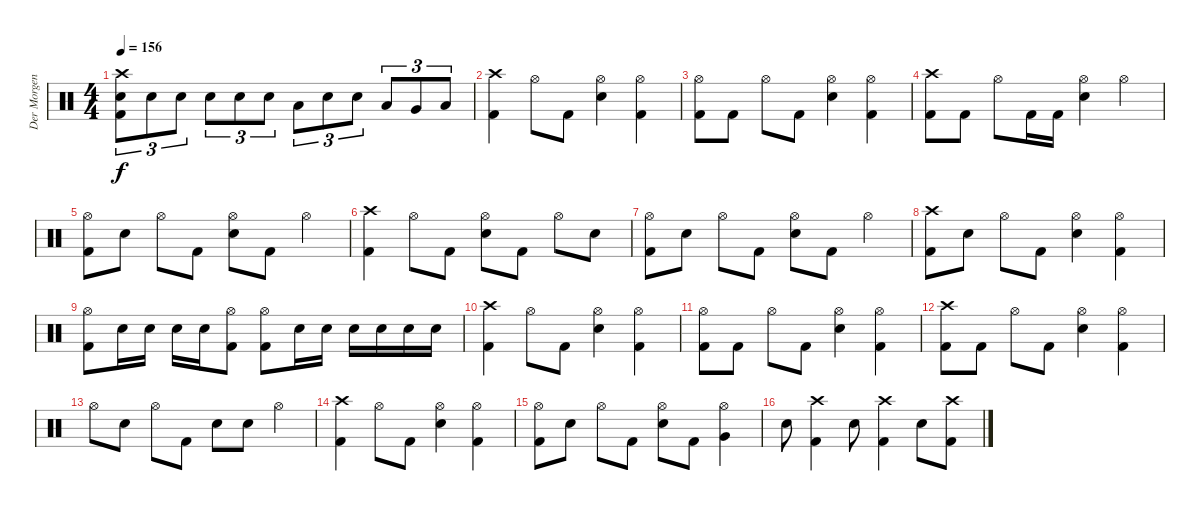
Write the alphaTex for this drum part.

\track ("Der Morgenstern" "Der Morgen") {instrument percussion}
\staff {score}
\articulation defaults
\ts (4 4)
\tempo 156
\clef neutral
\ks c
("Crash high (hit)" "Electric Snare (hit)" "Kick (hit) 2").8{tu (3 2) dy f} "Electric Snare (hit)".8{tu (3 2)} "Electric Snare (hit)".8{tu (3 2)} "Electric Snare (hit)".8{tu (3 2)} "Electric Snare (hit)".8{tu (3 2)} "Electric Snare (hit)".8{tu (3 2)} "Low Tom (hit)".8{tu (3 2)} "Electric Snare (hit)".8{tu (3 2)} "Electric Snare (hit)".8{tu (3 2)} "Low Tom (hit)".8{tu (3 2)} "Very Low Tom (hit)".8{tu (3 2)} "Low Floor Tom (hit)".8{tu (3 2)} |
("Crash high (hit)" "Kick (hit) 2").4 "Hi-Hat (open)".8 "Kick (hit) 2".8 ("Hi-Hat (open)" "Electric Snare (hit)").4 ("Hi-Hat (open)" "Kick (hit) 2").4 |
("Hi-Hat (open)" "Kick (hit) 2").8 "Kick (hit) 2".8 "Hi-Hat (open)".8 "Kick (hit) 2".8 ("Hi-Hat (open)" "Electric Snare (hit)").4 ("Hi-Hat (open)" "Kick (hit) 2").4 |
("Crash high (hit)" "Kick (hit) 2").8 "Kick (hit) 2".8 "Hi-Hat (open)".8 "Kick (hit) 2".16 "Kick (hit) 2".16 ("Hi-Hat (open)" "Electric Snare (hit)").4 "Hi-Hat (open)".4 |
("Hi-Hat (open)" "Kick (hit) 2").8 "Electric Snare (hit)".8 "Hi-Hat (open)".8 "Kick (hit) 2".8 ("Hi-Hat (open)" "Electric Snare (hit)").8 "Kick (hit) 2".8 "Hi-Hat (open)".4 |
("Crash high (hit)" "Kick (hit) 2").4 "Hi-Hat (open)".8 "Kick (hit) 2".8 ("Hi-Hat (open)" "Electric Snare (hit)").8 "Kick (hit) 2".8 "Hi-Hat (open)".8 "Electric Snare (hit)".8 |
("Hi-Hat (open)" "Kick (hit) 2").8 "Electric Snare (hit)".8 "Hi-Hat (open)".8 "Kick (hit) 2".8 ("Hi-Hat (open)" "Electric Snare (hit)").8 "Kick (hit) 2".8 "Hi-Hat (open)".4 |
("Crash high (hit)" "Kick (hit) 2").8 "Electric Snare (hit)".8 "Hi-Hat (open)".8 "Kick (hit) 2".8 ("Hi-Hat (open)" "Electric Snare (hit)").4 ("Hi-Hat (open)" "Kick (hit) 2").4 |
("Hi-Hat (open)" "Kick (hit) 2").8 "Electric Snare (hit)".16 "Electric Snare (hit)".16 "Electric Snare (hit)".16 "Electric Snare (hit)".16 ("Hi-Hat (open)" "Kick (hit) 2").8 ("Hi-Hat (open)" "Kick (hit) 2").8 "Electric Snare (hit)".16 "Electric Snare (hit)".16 "Electric Snare (hit)".16 "Electric Snare (hit)".16 "Electric Snare (hit)".16 "Electric Snare (hit)".16 |
("Crash high (hit)" "Kick (hit) 2").4 "Hi-Hat (open)".8 "Kick (hit) 2".8 ("Hi-Hat (open)" "Electric Snare (hit)").4 ("Hi-Hat (open)" "Kick (hit) 2").4 |
("Hi-Hat (open)" "Kick (hit) 2").8 "Kick (hit) 2".8 "Hi-Hat (open)".8 "Kick (hit) 2".8 ("Hi-Hat (open)" "Electric Snare (hit)").4 ("Hi-Hat (open)" "Kick (hit) 2").4 |
("Crash high (hit)" "Kick (hit) 2").8 "Kick (hit) 2".8 "Hi-Hat (open)".8 "Kick (hit) 2".8 ("Hi-Hat (open)" "Electric Snare (hit)").4 ("Hi-Hat (open)" "Kick (hit) 2").4 |
"Hi-Hat (open)".8 "Electric Snare (hit)".8 "Hi-Hat (open)".8 "Kick (hit) 2".8 "Electric Snare (hit)".8 "Electric Snare (hit)".8 "Hi-Hat (open)".4 |
("Crash high (hit)" "Kick (hit) 2").4 "Hi-Hat (open)".8 "Kick (hit) 2".8 ("Hi-Hat (open)" "Electric Snare (hit)").4 ("Hi-Hat (open)" "Kick (hit) 2").4 |
("Hi-Hat (open)" "Kick (hit) 2").8 "Electric Snare (hit)".8 "Hi-Hat (open)".8 "Kick (hit) 2".8 ("Hi-Hat (open)" "Electric Snare (hit)").8 "Kick (hit) 2".8 ("Hi-Hat (open)" "Very Low Tom (hit)").4 |
"Electric Snare (hit)".8 ("Crash high (hit)" "Kick (hit) 2").4 "Electric Snare (hit)".8 ("Crash high (hit)" "Kick (hit) 2").4 "Electric Snare (hit)".8 ("Crash high (hit)" "Kick (hit) 2").8
